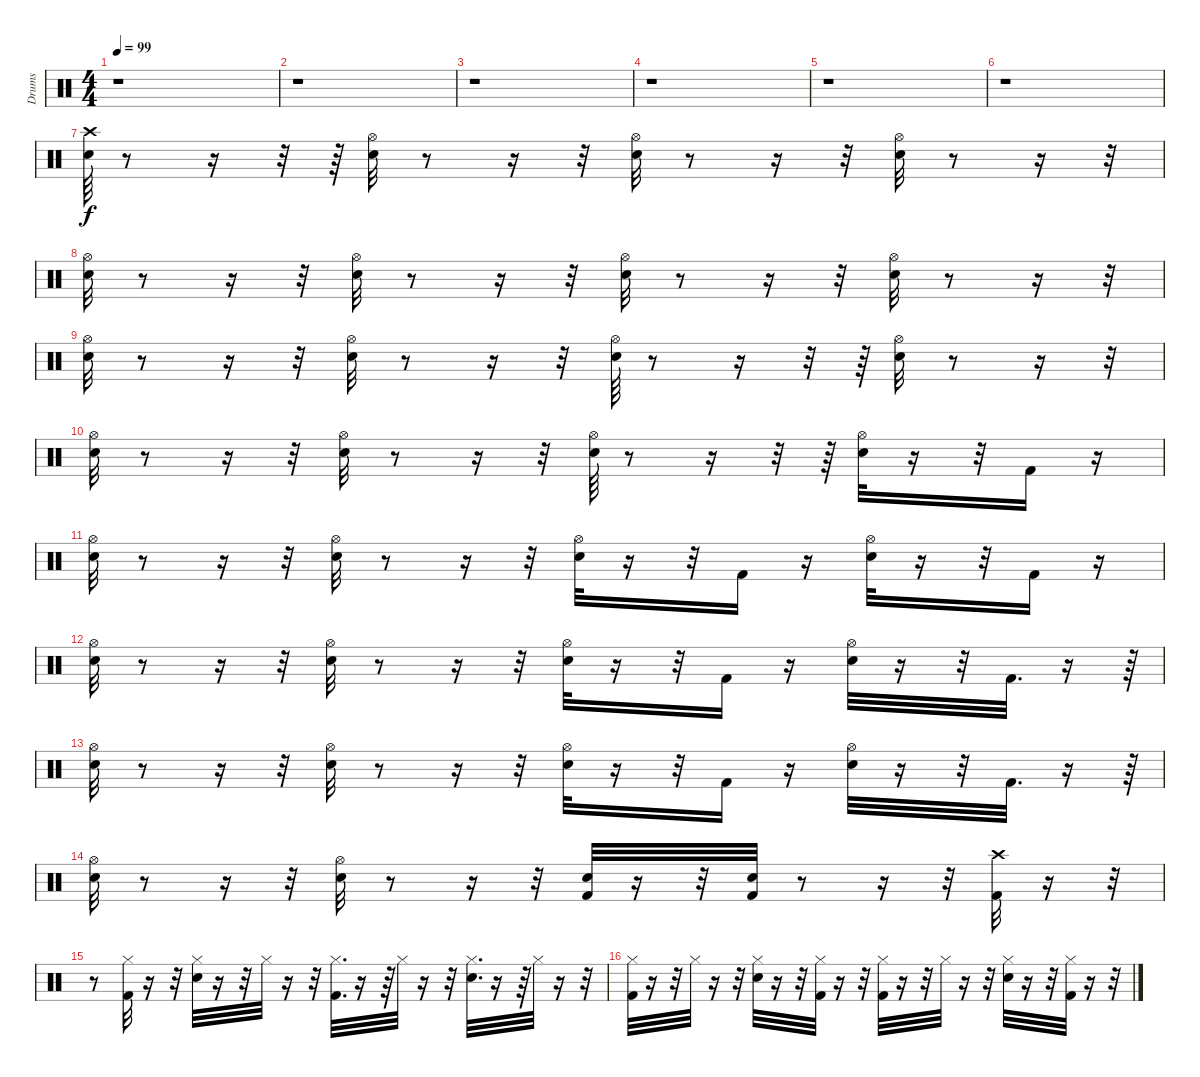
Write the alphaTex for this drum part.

\track ("Drums" "Drums") {instrument percussion}
\staff {score}
\articulation defaults
\ts (4 4)
\tempo 99
\clef neutral
\ks c
r.1{dy f} |
r.1 |
r.1 |
r.1 |
r.1 |
r.1 |
("Crash high (hit)" "Snare (hit) 2").64 r.8 r.16 r.32 r.64 ("Hi-Hat (open)" "Snare (hit) 2").32 r.8 r.16 r.32 ("Hi-Hat (open)" "Snare (hit) 2").32 r.8 r.16 r.32 ("Hi-Hat (open)" "Snare (hit) 2").32 r.8 r.16 r.32 |
("Hi-Hat (open)" "Snare (hit) 2").32 r.8 r.16 r.32 ("Hi-Hat (open)" "Snare (hit) 2").32 r.8 r.16 r.32 ("Hi-Hat (open)" "Snare (hit) 2").32 r.8 r.16 r.32 ("Hi-Hat (open)" "Snare (hit) 2").32 r.8 r.16 r.32 |
("Hi-Hat (open)" "Snare (hit) 2").32 r.8 r.16 r.32 ("Hi-Hat (open)" "Snare (hit) 2").32 r.8 r.16 r.32 ("Hi-Hat (open)" "Snare (hit) 2").64 r.8 r.16 r.32 r.64 ("Hi-Hat (open)" "Snare (hit) 2").32 r.8 r.16 r.32 |
("Hi-Hat (open)" "Snare (hit) 2").32 r.8 r.16 r.32 ("Hi-Hat (open)" "Snare (hit) 2").32 r.8 r.16 r.32 ("Hi-Hat (open)" "Snare (hit) 2").64 r.8 r.16 r.32 r.64 ("Hi-Hat (open)" "Snare (hit) 2").32 r.16 r.32 "Kick (hit) 2".16 r.16 |
("Hi-Hat (open)" "Snare (hit) 2").32 r.8 r.16 r.32 ("Hi-Hat (open)" "Snare (hit) 2").32 r.8 r.16 r.32 ("Hi-Hat (open)" "Snare (hit) 2").32 r.16 r.32 "Kick (hit) 2".16 r.16 ("Hi-Hat (open)" "Snare (hit) 2").32 r.16 r.32 "Kick (hit) 2".16 r.16 |
("Hi-Hat (open)" "Snare (hit) 2").32 r.8 r.16 r.32 ("Hi-Hat (open)" "Snare (hit) 2").32 r.8 r.16 r.32 ("Hi-Hat (open)" "Snare (hit) 2").32 r.16 r.32 "Kick (hit) 2".16 r.16 ("Hi-Hat (open)" "Snare (hit) 2").32 r.16 r.32 "Kick (hit) 2".32{d} r.16 r.64 |
("Hi-Hat (open)" "Snare (hit) 2").32 r.8 r.16 r.32 ("Hi-Hat (open)" "Snare (hit) 2").32 r.8 r.16 r.32 ("Hi-Hat (open)" "Snare (hit) 2").32 r.16 r.32 "Kick (hit) 2".16 r.16 ("Hi-Hat (open)" "Snare (hit) 2").32 r.16 r.32 "Kick (hit) 2".32{d} r.16 r.64 |
("Hi-Hat (open)" "Snare (hit) 2").32 r.8 r.16 r.32 ("Hi-Hat (open)" "Snare (hit) 2").32 r.8 r.16 r.32 ("Kick (hit) 2" "Snare (hit) 2").32 r.16 r.32 ("Kick (hit) 2" "Snare (hit) 2").32 r.8 r.16 r.32 ("Crash high (hit)" "Kick (hit) 2").32 r.16 r.32 |
r.8 ("Hi-Hat (closed)" "Kick (hit) 2").32 r.16 r.32 ("Hi-Hat (closed)" "Snare (hit) 2").32 r.16 r.32 "Hi-Hat (closed)".32 r.16 r.32 ("Hi-Hat (closed)" "Kick (hit) 2").32{d} r.16 r.64 "Hi-Hat (closed)".32 r.16 r.32 ("Hi-Hat (closed)" "Snare (hit) 2").32{d} r.16 r.64 "Hi-Hat (closed)".32 r.16 r.32 |
("Hi-Hat (closed)" "Kick (hit) 2").32 r.16 r.32 "Hi-Hat (closed)".32 r.16 r.32 ("Hi-Hat (closed)" "Snare (hit) 2").32 r.16 r.32 ("Hi-Hat (closed)" "Kick (hit) 2").32 r.16 r.32 ("Hi-Hat (closed)" "Kick (hit) 2").32 r.16 r.32 "Hi-Hat (closed)".32 r.16 r.32 ("Hi-Hat (closed)" "Snare (hit) 2").32 r.16 r.32 ("Hi-Hat (closed)" "Kick (hit) 2").32 r.16 r.32
